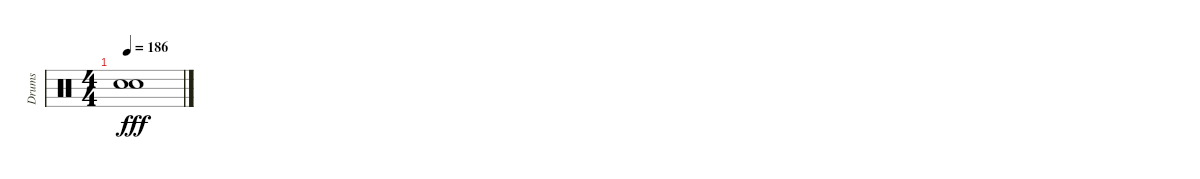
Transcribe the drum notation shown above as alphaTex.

\track ("Drums" "Drums") {instrument percussion}
\staff {score}
\articulation defaults
\ts (4 4)
\tempo 186
\clef neutral
\ks c
("Snare (hit)"{t} "Snare (hit)"{t}).1{dy fff}
